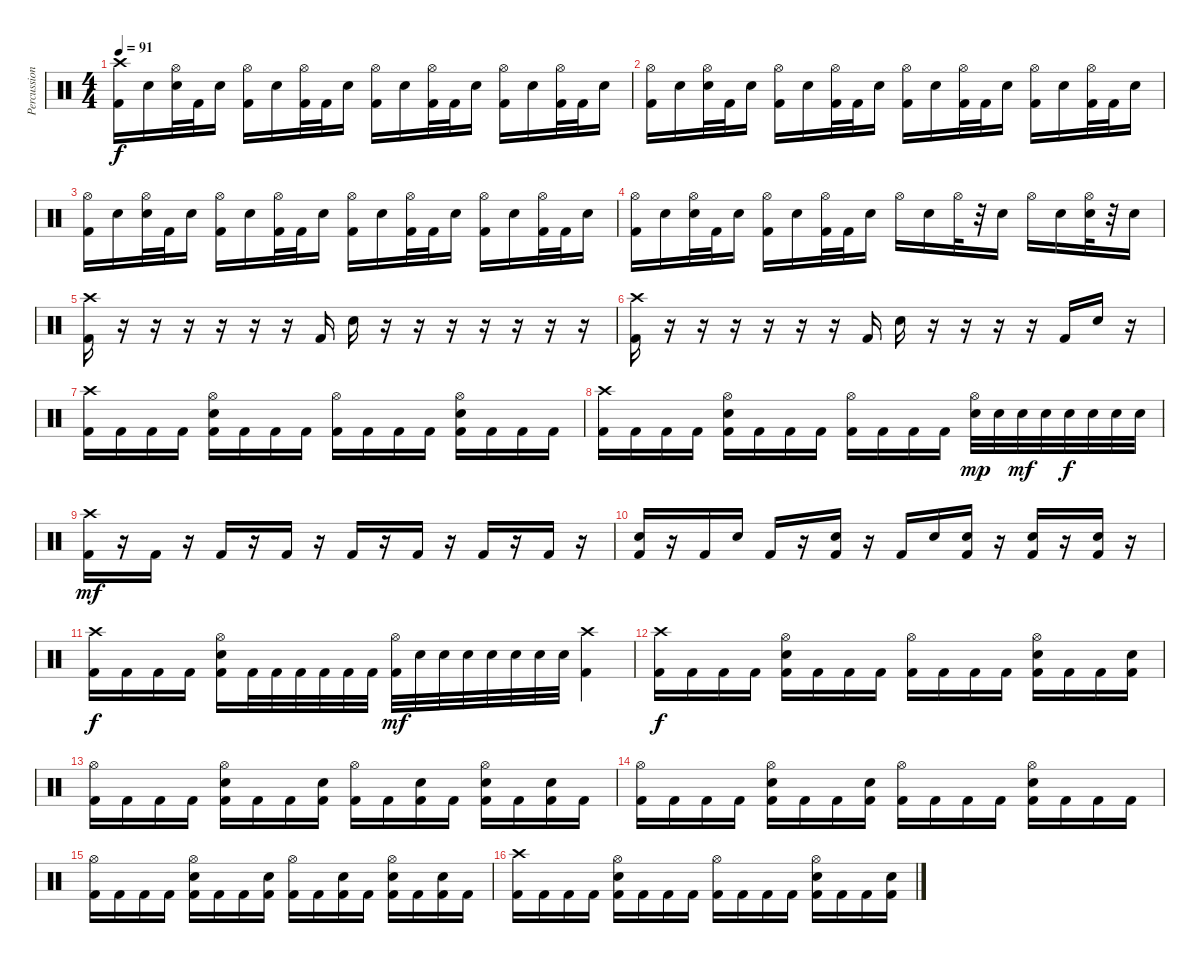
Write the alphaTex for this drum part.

\track ("Percussion" "Percussion") {instrument percussion}
\staff {score}
\articulation defaults
\ts (4 4)
\tempo 91
\clef neutral
\ks c
("Crash high (hit)" "Kick (hit) 2").16{dy f} "Snare (hit) 2".16 ("Hi-Hat (open)" "Snare (hit) 2").32 "Kick (hit) 2".32 "Snare (hit) 2".16 ("Hi-Hat (open)" "Kick (hit) 2").16 "Snare (hit) 2".16 ("Hi-Hat (open)" "Kick (hit) 2").32 "Kick (hit) 2".32 "Snare (hit) 2".16 ("Hi-Hat (open)" "Kick (hit) 2").16 "Snare (hit) 2".16 ("Hi-Hat (open)" "Kick (hit) 2").32 "Kick (hit) 2".32 "Snare (hit) 2".16 ("Hi-Hat (open)" "Kick (hit) 2").16 "Snare (hit) 2".16 ("Hi-Hat (open)" "Kick (hit) 2").32 "Kick (hit) 2".32 "Snare (hit) 2".16 |
("Hi-Hat (open)" "Kick (hit) 2").16 "Snare (hit) 2".16 ("Hi-Hat (open)" "Snare (hit) 2").32 "Kick (hit) 2".32 "Snare (hit) 2".16 ("Hi-Hat (open)" "Kick (hit) 2").16 "Snare (hit) 2".16 ("Hi-Hat (open)" "Kick (hit) 2").32 "Kick (hit) 2".32 "Snare (hit) 2".16 ("Hi-Hat (open)" "Kick (hit) 2").16 "Snare (hit) 2".16 ("Hi-Hat (open)" "Kick (hit) 2").32 "Kick (hit) 2".32 "Snare (hit) 2".16 ("Hi-Hat (open)" "Kick (hit) 2").16 "Snare (hit) 2".16 ("Hi-Hat (open)" "Kick (hit) 2").32 "Kick (hit) 2".32 "Snare (hit) 2".16 |
("Hi-Hat (open)" "Kick (hit) 2").16 "Snare (hit) 2".16 ("Hi-Hat (open)" "Snare (hit) 2").32 "Kick (hit) 2".32 "Snare (hit) 2".16 ("Hi-Hat (open)" "Kick (hit) 2").16 "Snare (hit) 2".16 ("Hi-Hat (open)" "Kick (hit) 2").32 "Kick (hit) 2".32 "Snare (hit) 2".16 ("Hi-Hat (open)" "Kick (hit) 2").16 "Snare (hit) 2".16 ("Hi-Hat (open)" "Kick (hit) 2").32 "Kick (hit) 2".32 "Snare (hit) 2".16 ("Hi-Hat (open)" "Kick (hit) 2").16 "Snare (hit) 2".16 ("Hi-Hat (open)" "Kick (hit) 2").32 "Kick (hit) 2".32 "Snare (hit) 2".16 |
("Hi-Hat (open)" "Kick (hit) 2").16 "Snare (hit) 2".16 ("Hi-Hat (open)" "Snare (hit) 2").32 "Kick (hit) 2".32 "Snare (hit) 2".16 ("Hi-Hat (open)" "Kick (hit) 2").16 "Snare (hit) 2".16 ("Hi-Hat (open)" "Kick (hit) 2").32 "Kick (hit) 2".32 "Snare (hit) 2".16 "Hi-Hat (open)".16 "Snare (hit) 2".16 "Hi-Hat (open)".32 r.32 "Snare (hit) 2".16 "Hi-Hat (open)".16 "Snare (hit) 2".16 ("Hi-Hat (open)" "Snare (hit) 2").32 r.32 "Snare (hit) 2".16 |
("Crash high (hit)" "Kick (hit) 2").16 r.16 r.16 r.16 r.16 r.16 r.16 "Kick (hit) 2".16 "Snare (hit) 2".16 r.16 r.16 r.16 r.16 r.16 r.16 r.16 |
("Crash high (hit)" "Kick (hit) 2").16 r.16 r.16 r.16 r.16 r.16 r.16 "Kick (hit) 2".16 "Snare (hit) 2".16 r.16 r.16 r.16 r.16 "Kick (hit) 2".16 "Snare (hit) 2".16 r.16 |
("Crash high (hit)" "Kick (hit) 2").16 "Kick (hit) 2".16 "Kick (hit) 2".16 "Kick (hit) 2".16 ("Hi-Hat (open)" "Snare (hit) 2" "Kick (hit) 2").16 "Kick (hit) 2".16 "Kick (hit) 2".16 "Kick (hit) 2".16 ("Hi-Hat (open)" "Kick (hit) 2").16 "Kick (hit) 2".16 "Kick (hit) 2".16 "Kick (hit) 2".16 ("Hi-Hat (open)" "Snare (hit) 2" "Kick (hit) 2").16 "Kick (hit) 2".16 "Kick (hit) 2".16 "Kick (hit) 2".16 |
("Crash high (hit)" "Kick (hit) 2").16 "Kick (hit) 2".16 "Kick (hit) 2".16 "Kick (hit) 2".16 ("Hi-Hat (open)" "Snare (hit) 2" "Kick (hit) 2").16 "Kick (hit) 2".16 "Kick (hit) 2".16 "Kick (hit) 2".16 ("Hi-Hat (open)" "Kick (hit) 2").16 "Kick (hit) 2".16 "Kick (hit) 2".16 "Kick (hit) 2".16 ("Hi-Hat (open)" "Snare (hit) 2").32{dy mp} "Snare (hit) 2".32 "Snare (hit) 2".32{dy mf} "Snare (hit) 2".32 "Snare (hit) 2".32{dy f} "Snare (hit) 2".32 "Snare (hit) 2".32 "Snare (hit) 2".32 |
("Crash high (hit)" "Kick (hit) 2").16{dy mf} r.16 "Kick (hit) 2".16 r.16 "Kick (hit) 2".16 r.16 "Kick (hit) 2".16 r.16 "Kick (hit) 2".16 r.16 "Kick (hit) 2".16 r.16 "Kick (hit) 2".16 r.16 "Kick (hit) 2".16 r.16 |
("Snare (hit) 2" "Kick (hit) 2").16 r.16 "Kick (hit) 2".16 "Snare (hit) 2".16 "Kick (hit) 2".16 r.16 ("Snare (hit) 2" "Kick (hit) 2").16 r.16 "Kick (hit) 2".16 "Snare (hit) 2".16 ("Snare (hit) 2" "Kick (hit) 2").16 r.16 ("Snare (hit) 2" "Kick (hit) 2").16 r.16 ("Snare (hit) 2" "Kick (hit) 2").16 r.16 |
("Crash high (hit)" "Kick (hit) 2").16{dy f} "Kick (hit) 2".16 "Kick (hit) 2".16 "Kick (hit) 2".16 ("Hi-Hat (open)" "Snare (hit) 2" "Kick (hit) 2").16 "Kick (hit) 2".32 "Kick (hit) 2".32 "Kick (hit) 2".32 "Kick (hit) 2".32 "Kick (hit) 2".32 "Kick (hit) 2".32 ("Hi-Hat (open)" "Kick (hit) 2").32{dy mf} "Snare (hit) 2".32 "Snare (hit) 2".32 "Snare (hit) 2".32 "Snare (hit) 2".32 "Snare (hit) 2".32 "Snare (hit) 2".32 "Snare (hit) 2".32 ("Crash high (hit)" "Kick (hit) 2").4 |
("Crash high (hit)" "Kick (hit) 2").16{dy f} "Kick (hit) 2".16 "Kick (hit) 2".16 "Kick (hit) 2".16 ("Hi-Hat (open)" "Snare (hit) 2" "Kick (hit) 2").16 "Kick (hit) 2".16 "Kick (hit) 2".16 "Kick (hit) 2".16 ("Hi-Hat (open)" "Kick (hit) 2").16 "Kick (hit) 2".16 "Kick (hit) 2".16 "Kick (hit) 2".16 ("Hi-Hat (open)" "Snare (hit) 2" "Kick (hit) 2").16 "Kick (hit) 2".16 "Kick (hit) 2".16 ("Snare (hit) 2" "Kick (hit) 2").16 |
("Hi-Hat (open)" "Kick (hit) 2").16 "Kick (hit) 2".16 "Kick (hit) 2".16 "Kick (hit) 2".16 ("Hi-Hat (open)" "Snare (hit) 2" "Kick (hit) 2").16 "Kick (hit) 2".16 "Kick (hit) 2".16 ("Snare (hit) 2" "Kick (hit) 2").16 ("Hi-Hat (open)" "Kick (hit) 2").16 "Kick (hit) 2".16 ("Snare (hit) 2" "Kick (hit) 2").16 "Kick (hit) 2".16 ("Hi-Hat (open)" "Snare (hit) 2" "Kick (hit) 2").16 "Kick (hit) 2".16 ("Snare (hit) 2" "Kick (hit) 2").16 "Kick (hit) 2".16 |
("Hi-Hat (open)" "Kick (hit) 2").16 "Kick (hit) 2".16 "Kick (hit) 2".16 "Kick (hit) 2".16 ("Hi-Hat (open)" "Snare (hit) 2" "Kick (hit) 2").16 "Kick (hit) 2".16 "Kick (hit) 2".16 ("Snare (hit) 2" "Kick (hit) 2").16 ("Hi-Hat (open)" "Kick (hit) 2").16 "Kick (hit) 2".16 "Kick (hit) 2".16 "Kick (hit) 2".16 ("Hi-Hat (open)" "Snare (hit) 2" "Kick (hit) 2").16 "Kick (hit) 2".16 "Kick (hit) 2".16 "Kick (hit) 2".16 |
("Hi-Hat (open)" "Kick (hit) 2").16 "Kick (hit) 2".16 "Kick (hit) 2".16 "Kick (hit) 2".16 ("Hi-Hat (open)" "Snare (hit) 2" "Kick (hit) 2").16 "Kick (hit) 2".16 "Kick (hit) 2".16 ("Snare (hit) 2" "Kick (hit) 2").16 ("Hi-Hat (open)" "Kick (hit) 2").16 "Kick (hit) 2".16 ("Snare (hit) 2" "Kick (hit) 2").16 "Kick (hit) 2".16 ("Hi-Hat (open)" "Snare (hit) 2" "Kick (hit) 2").16 "Kick (hit) 2".16 ("Snare (hit) 2" "Kick (hit) 2").16 "Kick (hit) 2".16 |
("Crash high (hit)" "Kick (hit) 2").16 "Kick (hit) 2".16 "Kick (hit) 2".16 "Kick (hit) 2".16 ("Hi-Hat (open)" "Snare (hit) 2" "Kick (hit) 2").16 "Kick (hit) 2".16 "Kick (hit) 2".16 "Kick (hit) 2".16 ("Hi-Hat (open)" "Kick (hit) 2").16 "Kick (hit) 2".16 "Kick (hit) 2".16 "Kick (hit) 2".16 ("Hi-Hat (open)" "Snare (hit) 2" "Kick (hit) 2").16 "Kick (hit) 2".16 "Kick (hit) 2".16 ("Snare (hit) 2" "Kick (hit) 2").16
